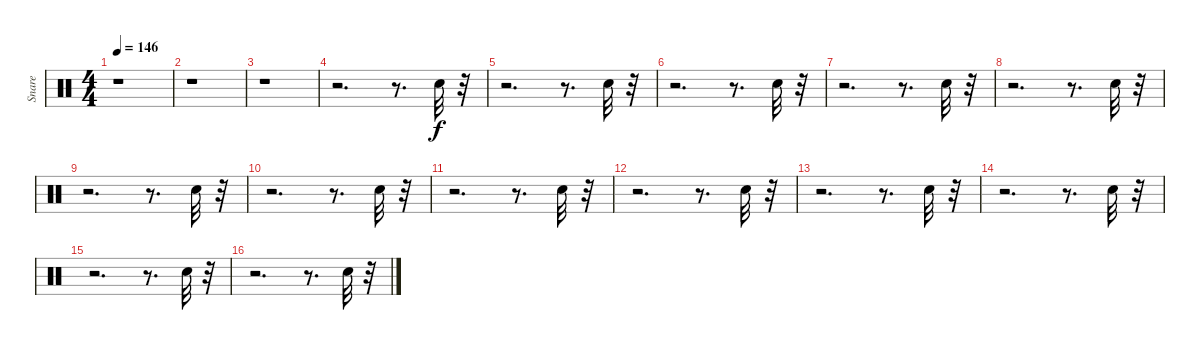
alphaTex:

\track ("Snare" "Snare") {instrument percussion}
\staff {score}
\articulation defaults
\ts (4 4)
\tempo 146
\clef neutral
\ks c
r.1{dy f} |
r.1 |
r.1 |
r.2{d} r.8{d} "Snare (hit) 2".32 r.32 |
r.2{d} r.8{d} "Snare (hit) 2".32 r.32 |
r.2{d} r.8{d} "Snare (hit) 2".32 r.32 |
r.2{d} r.8{d} "Snare (hit) 2".32 r.32 |
r.2{d} r.8{d} "Snare (hit) 2".32 r.32 |
r.2{d} r.8{d} "Snare (hit) 2".32 r.32 |
r.2{d} r.8{d} "Snare (hit) 2".32 r.32 |
r.2{d} r.8{d} "Snare (hit) 2".32 r.32 |
r.2{d} r.8{d} "Snare (hit) 2".32 r.32 |
r.2{d} r.8{d} "Snare (hit) 2".32 r.32 |
r.2{d} r.8{d} "Snare (hit) 2".32 r.32 |
r.2{d} r.8{d} "Snare (hit) 2".32 r.32 |
r.2{d} r.8{d} "Snare (hit) 2".32 r.32
